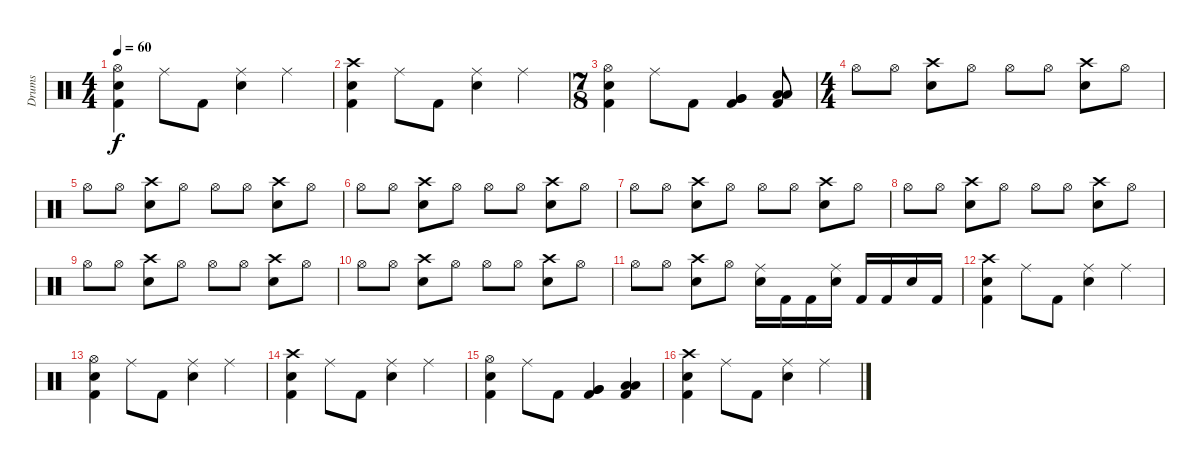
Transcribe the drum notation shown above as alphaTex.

\track ("Drums" "Drums") {instrument percussion}
\staff {score}
\articulation defaults
\ts (4 4)
\tempo 60
\clef neutral
\ks c
("Kick (hit) 2" "Electric Snare (hit)" "Hi-Hat (open)").4{dy f} "Ride (middle)".8 "Kick (hit) 2".8 ("Electric Snare (hit)" "Ride (middle)").4 "Ride (middle)".4 |
("Kick (hit) 2" "Electric Snare (hit)" "Crash high (hit)").4 "Ride (middle)".8 "Kick (hit) 2".8 ("Electric Snare (hit)" "Ride (middle)").4 "Ride (middle)".4 |
\ts (7 8)
("Kick (hit) 2" "Electric Snare (hit)" "Hi-Hat (open)").4 "Ride (middle)".8 "Kick (hit) 2".8 ("Kick (hit) 2" "Very Low Tom (hit)" "Very Low Tom (hit)").4 ("Kick (hit) 2" "Low Floor Tom (hit)" "Low Floor Tom (hit)").8 |
\ts (4 4)
"Hi-Hat (open)".8 "Hi-Hat (open)".8 ("Electric Snare (hit)" "Crash high (hit)").8 "Hi-Hat (open)".8 "Hi-Hat (open)".8 "Hi-Hat (open)".8 ("Electric Snare (hit)" "Crash high (hit)").8 "Hi-Hat (open)".8 |
"Hi-Hat (open)".8 "Hi-Hat (open)".8 ("Electric Snare (hit)" "Crash high (hit)").8 "Hi-Hat (open)".8 "Hi-Hat (open)".8 "Hi-Hat (open)".8 ("Electric Snare (hit)" "Crash high (hit)").8 "Hi-Hat (open)".8 |
"Hi-Hat (open)".8 "Hi-Hat (open)".8 ("Electric Snare (hit)" "Crash high (hit)").8 "Hi-Hat (open)".8 "Hi-Hat (open)".8 "Hi-Hat (open)".8 ("Electric Snare (hit)" "Crash high (hit)").8 "Hi-Hat (open)".8 |
"Hi-Hat (open)".8 "Hi-Hat (open)".8 ("Electric Snare (hit)" "Crash high (hit)").8 "Hi-Hat (open)".8 "Hi-Hat (open)".8 "Hi-Hat (open)".8 ("Electric Snare (hit)" "Crash high (hit)").8 "Hi-Hat (open)".8 |
"Hi-Hat (open)".8 "Hi-Hat (open)".8 ("Electric Snare (hit)" "Crash high (hit)").8 "Hi-Hat (open)".8 "Hi-Hat (open)".8 "Hi-Hat (open)".8 ("Electric Snare (hit)" "Crash high (hit)").8 "Hi-Hat (open)".8 |
"Hi-Hat (open)".8 "Hi-Hat (open)".8 ("Electric Snare (hit)" "Crash high (hit)").8 "Hi-Hat (open)".8 "Hi-Hat (open)".8 "Hi-Hat (open)".8 ("Electric Snare (hit)" "Crash high (hit)").8 "Hi-Hat (open)".8 |
"Hi-Hat (open)".8 "Hi-Hat (open)".8 ("Electric Snare (hit)" "Crash high (hit)").8 "Hi-Hat (open)".8 "Hi-Hat (open)".8 "Hi-Hat (open)".8 ("Electric Snare (hit)" "Crash high (hit)").8 "Hi-Hat (open)".8 |
"Hi-Hat (open)".8 "Hi-Hat (open)".8 ("Electric Snare (hit)" "Crash high (hit)").8 "Hi-Hat (open)".8 ("Electric Snare (hit)" "Ride (middle)").16 "Kick (hit) 2".16 "Kick (hit) 2".16 ("Electric Snare (hit)" "Ride (middle)").16 "Kick (hit) 2".16 "Kick (hit) 2".16 "Electric Snare (hit)".16 "Kick (hit) 2".16 |
("Kick (hit) 2" "Electric Snare (hit)" "Crash high (hit)").4 "Ride (middle)".8 "Kick (hit) 2".8 ("Electric Snare (hit)" "Ride (middle)").4 "Ride (middle)".4 |
("Kick (hit) 2" "Electric Snare (hit)" "Hi-Hat (open)").4 "Ride (middle)".8 "Kick (hit) 2".8 ("Electric Snare (hit)" "Ride (middle)").4 "Ride (middle)".4 |
("Kick (hit) 2" "Electric Snare (hit)" "Crash high (hit)").4 "Ride (middle)".8 "Kick (hit) 2".8 ("Electric Snare (hit)" "Ride (middle)").4 "Ride (middle)".4 |
("Kick (hit) 2" "Electric Snare (hit)" "Hi-Hat (open)").4 "Ride (middle)".8 "Kick (hit) 2".8 ("Kick (hit) 2" "Very Low Tom (hit)" "Very Low Tom (hit)").4 ("Kick (hit) 2" "Low Floor Tom (hit)" "Low Floor Tom (hit)").4 |
("Kick (hit) 2" "Electric Snare (hit)" "Crash high (hit)").4 "Ride (middle)".8 "Kick (hit) 2".8 ("Electric Snare (hit)" "Ride (middle)").4 "Ride (middle)".4
